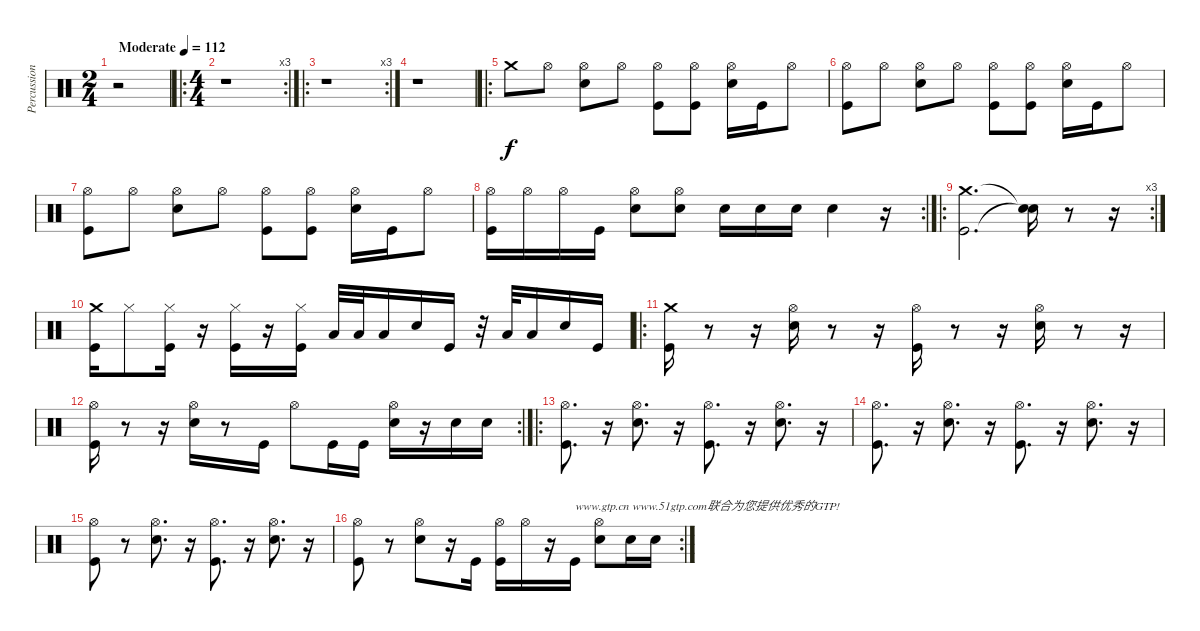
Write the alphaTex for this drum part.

\track ("Percussion" "Percussion") {instrument percussion}
\staff {score}
\articulation defaults
\ts (2 4)
\tempo (112 "Moderate")
\clef neutral
\ks c
r.2{dy f} |
\ro
\rc 3
\ts (4 4)
r.1 |
\ro
\rc 3
r.1 |
r.1 |
\ro "Crash medium (hit)".8 "Hi-Hat (open)".8
("Hi-Hat (open)" "Electric Snare (hit)").8 "Hi-Hat (open)".8 ("Hi-Hat (open)" "Kick (hit)").8 ("Hi-Hat (open)" "Kick (hit)").8 ("Hi-Hat (open)" "Electric Snare (hit)").16 "Kick (hit)".16 "Hi-Hat (open)".8 |
("Hi-Hat (open)" "Kick (hit)").8 "Hi-Hat (open)".8 ("Hi-Hat (open)" "Electric Snare (hit)").8 "Hi-Hat (open)".8 ("Hi-Hat (open)" "Kick (hit)").8 ("Hi-Hat (open)" "Kick (hit)").8 ("Hi-Hat (open)" "Electric Snare (hit)").16 "Kick (hit)".16 "Hi-Hat (open)".8 |
("Hi-Hat (open)" "Kick (hit)").8 "Hi-Hat (open)".8 ("Hi-Hat (open)" "Electric Snare (hit)").8 "Hi-Hat (open)".8 ("Hi-Hat (open)" "Kick (hit)").8 ("Hi-Hat (open)" "Kick (hit)").8 ("Hi-Hat (open)" "Electric Snare (hit)").16 "Kick (hit)".16 "Hi-Hat (open)".8 |
\rc 2
("Hi-Hat (open)" "Kick (hit)").16 "Hi-Hat (open)".16 "Hi-Hat (open)".16 "Kick (hit)".16 ("Hi-Hat (open)" "Electric Snare (hit)").8 ("Hi-Hat (open)" "Electric Snare (hit)").8 "Electric Snare (hit)".16 "Electric Snare (hit)".16 "Electric Snare (hit)".16 "Electric Snare (hit)".4 r.16 |
\ro
\rc 3
("Kick (hit)" "Crash medium (hit)").2{d} ("Snare (hit)"{t} "Snare (hit)"{t}).16 r.8 r.16 |
("Kick (hit)" "Crash medium (hit)").16 "Hi-Hat (closed)".8 ("Kick (hit)" "Hi-Hat (closed)").16 r.16 ("Kick (hit)" "Hi-Hat (closed)").16 r.16 ("Kick (hit)" "Hi-Hat (closed)").16 "Low Tom (hit)".32 "Low Tom (hit)".32 "Low Tom (hit)".16 "Electric Snare (hit)".16 "Kick (hit)".16 r.32 "Low Tom (hit)".32 "Low Tom (hit)".16 "Electric Snare (hit)".16 "Kick (hit)".16 |
\ro
("Kick (hit)" "Crash medium (hit)").16 r.8 r.16 ("Hi-Hat (open)" "Electric Snare (hit)").16 r.8 r.16 ("Hi-Hat (open)" "Kick (hit)").16 r.8 r.16 ("Hi-Hat (open)" "Electric Snare (hit)").16 r.8 r.16 |
\rc 2
("Hi-Hat (open)" "Kick (hit)").16 r.8 r.16 ("Hi-Hat (open)" "Electric Snare (hit)").16 r.8 "Kick (hit)".16 "Hi-Hat (open)".8 "Kick (hit)".16 "Kick (hit)".16 ("Hi-Hat (open)" "Electric Snare (hit)").16 r.16 "Electric Snare (hit)".16 "Electric Snare (hit)".16 |
\ro
("Hi-Hat (open)" "Kick (hit)").8{d} r.16 ("Hi-Hat (open)" "Electric Snare (hit)").8{d} r.16 ("Hi-Hat (open)" "Kick (hit)").8{d} r.16 ("Hi-Hat (open)" "Electric Snare (hit)").8{d} r.16 |
("Hi-Hat (open)" "Kick (hit)").8{d} r.16 ("Hi-Hat (open)" "Electric Snare (hit)").8{d} r.16 ("Hi-Hat (open)" "Kick (hit)").8{d} r.16 ("Hi-Hat (open)" "Electric Snare (hit)").8{d} r.16 |
("Hi-Hat (open)" "Kick (hit)").8 r.8 ("Hi-Hat (open)" "Electric Snare (hit)").8{d} r.16 ("Hi-Hat (open)" "Kick (hit)").8{d} r.16 ("Hi-Hat (open)" "Electric Snare (hit)").8{d} r.16 |
\rc 2
("Hi-Hat (open)" "Kick (hit)").8 r.8 ("Hi-Hat (open)" "Electric Snare (hit)").8 r.16 "Kick (hit)".16 ("Hi-Hat (open)" "Kick (hit)").16 "Hi-Hat (open)".16 r.16 "Kick (hit)".16{txt "www.gtp.cn www.51gtp.com联合为您提供优秀的GTP!"} ("Hi-Hat (open)" "Electric Snare (hit)").8 "Electric Snare (hit)".16 "Electric Snare (hit)".16
